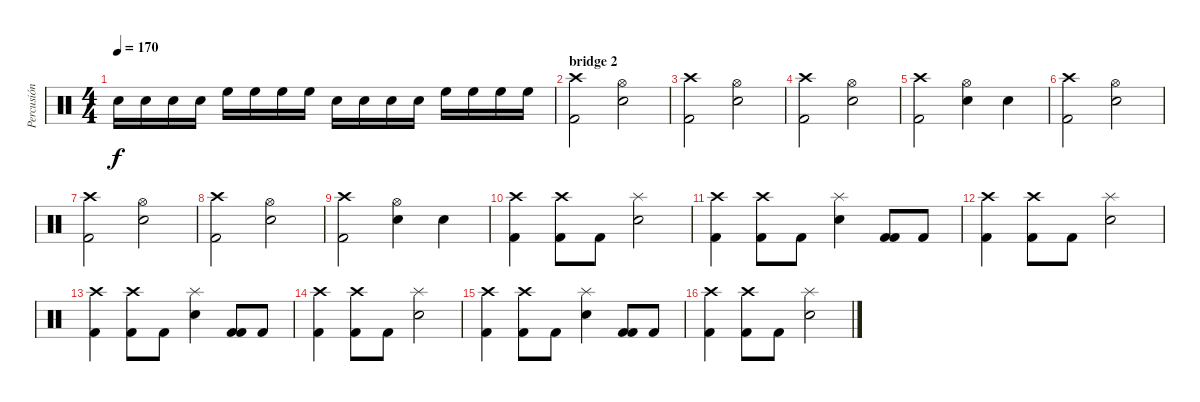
\track ("Percusión" "Percusión") {instrument percussion}
\staff {score}
\articulation defaults
\ts (4 4)
\tempo 170
\clef neutral
\ks c "Snare (hit) 2".16{dy f} "Snare (hit) 2".16 "Snare (hit) 2".16 "Snare (hit) 2".16 "High Floor Tom (hit)".16 "High Floor Tom (hit)".16 "High Floor Tom (hit)".16 "High Floor Tom (hit)".16 "Snare (hit) 2".16 "Snare (hit) 2".16 "Snare (hit) 2".16 "Snare (hit) 2".16 "High Floor Tom (hit)".16 "High Floor Tom (hit)".16 "High Floor Tom (hit)".16 "High Floor Tom (hit)".16
|
\section ("" "bridge 2")
("Kick (hit) 2" "Crash high (hit)").2 ("Snare (hit) 2" "Hi-Hat (open)").2 |
("Kick (hit) 2" "Crash high (hit)").2 ("Snare (hit) 2" "Hi-Hat (open)").2 |
("Kick (hit) 2" "Crash high (hit)").2 ("Snare (hit) 2" "Hi-Hat (open)").2 |
("Kick (hit) 2" "Crash high (hit)").2 ("Snare (hit) 2" "Hi-Hat (open)").4 "Snare (hit) 2".4 |
("Kick (hit) 2" "Crash high (hit)").2 ("Snare (hit) 2" "Hi-Hat (open)").2 |
("Kick (hit) 2" "Crash high (hit)").2 ("Snare (hit) 2" "Hi-Hat (open)").2 |
("Kick (hit) 2" "Crash high (hit)").2 ("Snare (hit) 2" "Hi-Hat (open)").2 |
("Kick (hit) 2" "Crash high (hit)").2 ("Snare (hit) 2" "Hi-Hat (open)").4 "Snare (hit) 2".4 |
("Kick (hit) 2" "Crash high (hit)").4 ("Kick (hit) 2" "Crash high (hit)").8 "Kick (hit) 2".8 ("Splash (hit)" "Snare (hit) 2").2 |
("Kick (hit) 2" "Crash high (hit)").4 ("Kick (hit) 2" "Crash high (hit)").8 "Kick (hit) 2".8 ("Splash (hit)" "Snare (hit) 2").4 ("Kick (hit) 2" "Kick (hit) 2").8 "Kick (hit) 2".8 |
("Kick (hit) 2" "Crash high (hit)").4 ("Kick (hit) 2" "Crash high (hit)").8 "Kick (hit) 2".8 ("Splash (hit)" "Snare (hit) 2").2 |
("Kick (hit) 2" "Crash high (hit)").4 ("Kick (hit) 2" "Crash high (hit)").8 "Kick (hit) 2".8 ("Splash (hit)" "Snare (hit) 2").4 ("Kick (hit) 2" "Kick (hit) 2").8 "Kick (hit) 2".8 |
("Kick (hit) 2" "Crash high (hit)").4 ("Kick (hit) 2" "Crash high (hit)").8 "Kick (hit) 2".8 ("Splash (hit)" "Snare (hit) 2").2 |
("Kick (hit) 2" "Crash high (hit)").4 ("Kick (hit) 2" "Crash high (hit)").8 "Kick (hit) 2".8 ("Splash (hit)" "Snare (hit) 2").4 ("Kick (hit) 2" "Kick (hit) 2").8 "Kick (hit) 2".8 |
("Kick (hit) 2" "Crash high (hit)").4 ("Kick (hit) 2" "Crash high (hit)").8 "Kick (hit) 2".8 ("Splash (hit)" "Snare (hit) 2").2
